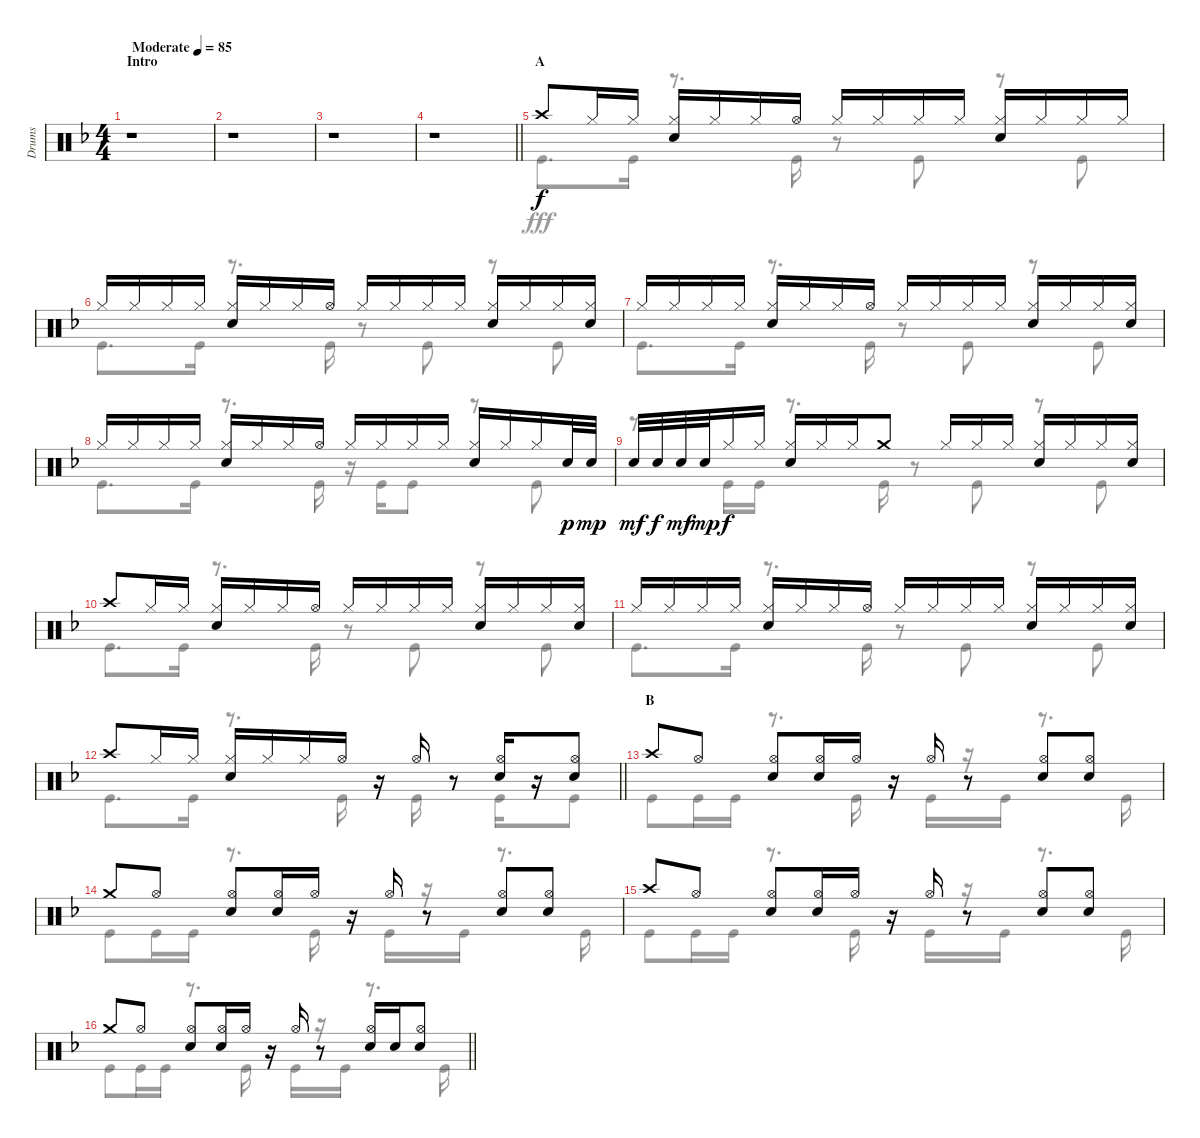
\track ("Drums" "Drums") {instrument percussion}
\staff {score}
\articulation defaults
\voice
\ts (4 4)
\section ("" "Intro")
\tempo (85 "Moderate")
\clef neutral
\ks f
r.1{dy f} |
r.1 |
r.1 |
\barLineRight lightlight
r.1 |
\section ("" "A")
"Crash high (hit)".8 "Hi-Hat (closed)".16 "Hi-Hat (closed)".16 ("Hi-Hat (closed)" "Snare (hit) 2").16 "Hi-Hat (closed)".16 "Hi-Hat (closed)".16 "Hi-Hat (open)".16 "Hi-Hat (closed)".16 "Hi-Hat (closed)".16 "Hi-Hat (closed)".16 "Hi-Hat (closed)".16 ("Hi-Hat (closed)" "Snare (hit) 2").16 "Hi-Hat (closed)".16 "Hi-Hat (closed)".16 "Hi-Hat (closed)".16 |
"Hi-Hat (closed)".16 "Hi-Hat (closed)".16 "Hi-Hat (closed)".16 "Hi-Hat (closed)".16 ("Hi-Hat (closed)" "Snare (hit) 2").16 "Hi-Hat (closed)".16 "Hi-Hat (closed)".16 "Hi-Hat (open)".16 "Hi-Hat (closed)".16 "Hi-Hat (closed)".16 "Hi-Hat (closed)".16 "Hi-Hat (closed)".16 ("Hi-Hat (closed)" "Snare (hit) 2").16 "Hi-Hat (closed)".16 "Hi-Hat (closed)".16 ("Hi-Hat (closed)" "Snare (hit) 2").16 |
"Hi-Hat (closed)".16 "Hi-Hat (closed)".16 "Hi-Hat (closed)".16 "Hi-Hat (closed)".16 ("Hi-Hat (closed)" "Snare (hit) 2").16 "Hi-Hat (closed)".16 "Hi-Hat (closed)".16 "Hi-Hat (open)".16 "Hi-Hat (closed)".16 "Hi-Hat (closed)".16 "Hi-Hat (closed)".16 "Hi-Hat (closed)".16 ("Hi-Hat (closed)" "Snare (hit) 2").16 "Hi-Hat (closed)".16 "Hi-Hat (closed)".16 ("Hi-Hat (closed)" "Snare (hit) 2").16 |
"Hi-Hat (closed)".16 "Hi-Hat (closed)".16 "Hi-Hat (closed)".16 "Hi-Hat (closed)".16 ("Hi-Hat (closed)" "Snare (hit) 2").16 "Hi-Hat (closed)".16 "Hi-Hat (closed)".16 "Hi-Hat (open)".16 "Hi-Hat (closed)".16 "Hi-Hat (closed)".16 "Hi-Hat (closed)".16 "Hi-Hat (closed)".16 ("Hi-Hat (closed)" "Snare (hit) 2").16 "Hi-Hat (closed)".16 "Hi-Hat (closed)".16 "Snare (hit) 2".32{dy p} "Snare (hit) 2".32{dy mp} |
"Snare (hit) 2".32{dy mf} "Snare (hit) 2".32{dy f} "Snare (hit) 2".32{dy mf} "Snare (hit) 2".32{dy mp} "Hi-Hat (closed)".16{dy f} "Hi-Hat (closed)".16 ("Hi-Hat (closed)" "Snare (hit) 2").16 "Hi-Hat (closed)".16 "Hi-Hat (closed)".16 "Crash medium (hit)".8 "Hi-Hat (closed)".16 "Hi-Hat (closed)".16 "Hi-Hat (closed)".16 ("Hi-Hat (closed)" "Snare (hit) 2").16 "Hi-Hat (closed)".16 "Hi-Hat (closed)".16 ("Hi-Hat (closed)" "Snare (hit) 2").16 |
"Crash high (hit)".8 "Hi-Hat (closed)".16 "Hi-Hat (closed)".16 ("Hi-Hat (closed)" "Snare (hit) 2").16 "Hi-Hat (closed)".16 "Hi-Hat (closed)".16 "Hi-Hat (open)".16 "Hi-Hat (closed)".16 "Hi-Hat (closed)".16 "Hi-Hat (closed)".16 "Hi-Hat (closed)".16 ("Hi-Hat (closed)" "Snare (hit) 2").16 "Hi-Hat (closed)".16 "Hi-Hat (closed)".16 ("Hi-Hat (closed)" "Snare (hit) 2").16 |
"Hi-Hat (closed)".16 "Hi-Hat (closed)".16 "Hi-Hat (closed)".16 "Hi-Hat (closed)".16 ("Hi-Hat (closed)" "Snare (hit) 2").16 "Hi-Hat (closed)".16 "Hi-Hat (closed)".16 "Hi-Hat (open)".16 "Hi-Hat (closed)".16 "Hi-Hat (closed)".16 "Hi-Hat (closed)".16 "Hi-Hat (closed)".16 ("Hi-Hat (closed)" "Snare (hit) 2").16 "Hi-Hat (closed)".16 "Hi-Hat (closed)".16 ("Hi-Hat (closed)" "Snare (hit) 2").16 |
\barLineRight lightlight "Crash high (hit)".8 "Hi-Hat (closed)".16 "Hi-Hat (closed)".16
("Hi-Hat (closed)" "Snare (hit) 2").16 "Hi-Hat (closed)".16 "Hi-Hat (closed)".16 "Hi-Hat (open)".16 r.16 "Hi-Hat (open)".16 r.8 ("Hi-Hat (open)" "Snare (hit) 2").16 r.16 ("Hi-Hat (open)" "Snare (hit) 2").8 |
\section ("" "B")
"Crash high (hit)".8 "Hi-Hat (open)".8 ("Hi-Hat (open)" "Snare (hit) 2").8 ("Hi-Hat (open)" "Snare (hit) 2").16 "Hi-Hat (open)".16 r.16 "Hi-Hat (open)".16 r.8 ("Hi-Hat (open)" "Snare (hit) 2").8 ("Hi-Hat (open)" "Snare (hit) 2").8 |
"Crash medium (hit)".8 "Hi-Hat (open)".8 ("Hi-Hat (open)" "Snare (hit) 2").8 ("Hi-Hat (open)" "Snare (hit) 2").16 "Hi-Hat (open)".16 r.16 "Hi-Hat (open)".16 r.8 ("Hi-Hat (open)" "Snare (hit) 2").8 ("Hi-Hat (open)" "Snare (hit) 2").8 |
"Crash high (hit)".8 "Hi-Hat (open)".8 ("Hi-Hat (open)" "Snare (hit) 2").8 ("Hi-Hat (open)" "Snare (hit) 2").16 "Hi-Hat (open)".16 r.16 "Hi-Hat (open)".16 r.8 ("Hi-Hat (open)" "Snare (hit) 2").8 ("Hi-Hat (open)" "Snare (hit) 2").8 |
\barLineRight lightlight "Crash medium (hit)".8 "Hi-Hat (open)".8
("Hi-Hat (open)" "Snare (hit) 2").8 ("Hi-Hat (open)" "Snare (hit) 2").16 "Hi-Hat (open)".16 r.16 "Hi-Hat (open)".16 r.8 ("Hi-Hat (open)" "Snare (hit) 2").16 "Snare (hit) 2".16 ("Hi-Hat (open)" "Snare (hit) 2").8
\voice
\clef neutral
\ottava regular
\simile none
\ks f
r.1{dy fff} |
r.1 |
r.1 |
\barLineRight lightlight
r.1 |
"Kick (hit)".8{d} "Kick (hit)".16 r.8{d} "Kick (hit)".16 r.8 "Kick (hit)".8 r.8 "Kick (hit)".8 |
"Kick (hit)".8{d} "Kick (hit)".16 r.8{d} "Kick (hit)".16 r.8 "Kick (hit)".8 r.8 "Kick (hit)".8 |
"Kick (hit)".8{d} "Kick (hit)".16 r.8{d} "Kick (hit)".16 r.8 "Kick (hit)".8 r.8 "Kick (hit)".8 |
"Kick (hit)".8{d} "Kick (hit)".16 r.8{d} "Kick (hit)".16 r.16 "Kick (hit)".16 "Kick (hit)".8 r.8 "Kick (hit)".8 |
r.8 "Kick (hit)".16 "Kick (hit)".16 r.8{d} "Kick (hit)".16 r.8 "Kick (hit)".8 r.8 "Kick (hit)".8 |
"Kick (hit)".8{d} "Kick (hit)".16 r.8{d} "Kick (hit)".16 r.8 "Kick (hit)".8 r.8 "Kick (hit)".8 |
"Kick (hit)".8{d} "Kick (hit)".16 r.8{d} "Kick (hit)".16 r.8 "Kick (hit)".8 r.8 "Kick (hit)".8 |
\barLineRight lightlight "Kick (hit)".8{d} "Kick (hit)".16
r.8{d} "Kick (hit)".16 r.16 "Kick (hit)".16 r.8 "Kick (hit)".16 r.16 "Kick (hit)".8 |
"Kick (hit)".8 "Kick (hit)".16 "Kick (hit)".16 r.8{d} "Kick (hit)".16 r.16 "Kick (hit)".16 r.16 "Kick (hit)".16 r.8{d} "Kick (hit)".16 |
"Kick (hit)".8 "Kick (hit)".16 "Kick (hit)".16 r.8{d} "Kick (hit)".16 r.16 "Kick (hit)".16 r.16 "Kick (hit)".16 r.8{d} "Kick (hit)".16 |
"Kick (hit)".8 "Kick (hit)".16 "Kick (hit)".16 r.8{d} "Kick (hit)".16 r.16 "Kick (hit)".16 r.16 "Kick (hit)".16 r.8{d} "Kick (hit)".16 |
\barLineRight lightlight "Kick (hit)".8 "Kick (hit)".16 "Kick (hit)".16
r.8{d} "Kick (hit)".16 r.16 "Kick (hit)".16 r.16 "Kick (hit)".16 r.8{d} "Kick (hit)".16
